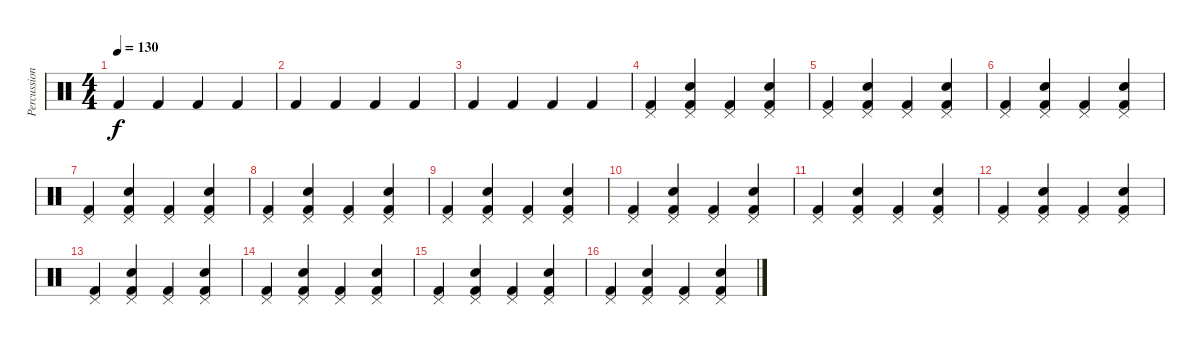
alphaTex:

\track ("Percussions" "Percussion") {instrument percussion}
\staff {score}
\articulation defaults
\ts (4 4)
\tempo 130
\clef neutral
\ks c "Kick (hit) 2".4{dy f} "Kick (hit) 2".4 "Kick (hit) 2".4 "Kick (hit) 2".4
|
"Kick (hit) 2".4 "Kick (hit) 2".4 "Kick (hit) 2".4 "Kick (hit) 2".4 |
"Kick (hit) 2".4 "Kick (hit) 2".4 "Kick (hit) 2".4 "Kick (hit) 2".4 |
("Pedal Hi-Hat (hit)" "Kick (hit) 2").4 ("Pedal Hi-Hat (hit)" "Snare (hit) 2" "Kick (hit) 2").4 ("Pedal Hi-Hat (hit)" "Kick (hit) 2").4 ("Pedal Hi-Hat (hit)" "Snare (hit) 2" "Kick (hit) 2").4 |
("Pedal Hi-Hat (hit)" "Kick (hit) 2").4 ("Pedal Hi-Hat (hit)" "Snare (hit) 2" "Kick (hit) 2").4 ("Pedal Hi-Hat (hit)" "Kick (hit) 2").4 ("Pedal Hi-Hat (hit)" "Snare (hit) 2" "Kick (hit) 2").4 |
("Pedal Hi-Hat (hit)" "Kick (hit) 2").4 ("Pedal Hi-Hat (hit)" "Snare (hit) 2" "Kick (hit) 2").4 ("Pedal Hi-Hat (hit)" "Kick (hit) 2").4 ("Pedal Hi-Hat (hit)" "Snare (hit) 2" "Kick (hit) 2").4 |
("Pedal Hi-Hat (hit)" "Kick (hit) 2").4 ("Pedal Hi-Hat (hit)" "Snare (hit) 2" "Kick (hit) 2").4 ("Pedal Hi-Hat (hit)" "Kick (hit) 2").4 ("Pedal Hi-Hat (hit)" "Snare (hit) 2" "Kick (hit) 2").4 |
("Pedal Hi-Hat (hit)" "Kick (hit) 2").4 ("Pedal Hi-Hat (hit)" "Snare (hit) 2" "Kick (hit) 2").4 ("Pedal Hi-Hat (hit)" "Kick (hit) 2").4 ("Pedal Hi-Hat (hit)" "Snare (hit) 2" "Kick (hit) 2").4 |
("Pedal Hi-Hat (hit)" "Kick (hit) 2").4 ("Pedal Hi-Hat (hit)" "Snare (hit) 2" "Kick (hit) 2").4 ("Pedal Hi-Hat (hit)" "Kick (hit) 2").4 ("Pedal Hi-Hat (hit)" "Snare (hit) 2" "Kick (hit) 2").4 |
("Pedal Hi-Hat (hit)" "Kick (hit) 2").4 ("Pedal Hi-Hat (hit)" "Snare (hit) 2" "Kick (hit) 2").4 ("Pedal Hi-Hat (hit)" "Kick (hit) 2").4 ("Pedal Hi-Hat (hit)" "Snare (hit) 2" "Kick (hit) 2").4 |
("Pedal Hi-Hat (hit)" "Kick (hit) 2").4 ("Pedal Hi-Hat (hit)" "Snare (hit) 2" "Kick (hit) 2").4 ("Pedal Hi-Hat (hit)" "Kick (hit) 2").4 ("Pedal Hi-Hat (hit)" "Snare (hit) 2" "Kick (hit) 2").4 |
("Pedal Hi-Hat (hit)" "Kick (hit) 2").4 ("Pedal Hi-Hat (hit)" "Snare (hit) 2" "Kick (hit) 2").4 ("Pedal Hi-Hat (hit)" "Kick (hit) 2").4 ("Pedal Hi-Hat (hit)" "Snare (hit) 2" "Kick (hit) 2").4 |
("Pedal Hi-Hat (hit)" "Kick (hit) 2").4 ("Pedal Hi-Hat (hit)" "Snare (hit) 2" "Kick (hit) 2").4 ("Pedal Hi-Hat (hit)" "Kick (hit) 2").4 ("Pedal Hi-Hat (hit)" "Snare (hit) 2" "Kick (hit) 2").4 |
("Pedal Hi-Hat (hit)" "Kick (hit) 2").4 ("Pedal Hi-Hat (hit)" "Snare (hit) 2" "Kick (hit) 2").4 ("Pedal Hi-Hat (hit)" "Kick (hit) 2").4 ("Pedal Hi-Hat (hit)" "Snare (hit) 2" "Kick (hit) 2").4 |
("Pedal Hi-Hat (hit)" "Kick (hit) 2").4 ("Pedal Hi-Hat (hit)" "Snare (hit) 2" "Kick (hit) 2").4 ("Pedal Hi-Hat (hit)" "Kick (hit) 2").4 ("Pedal Hi-Hat (hit)" "Snare (hit) 2" "Kick (hit) 2").4 |
("Pedal Hi-Hat (hit)" "Kick (hit) 2").4 ("Pedal Hi-Hat (hit)" "Snare (hit) 2" "Kick (hit) 2").4 ("Pedal Hi-Hat (hit)" "Kick (hit) 2").4 ("Pedal Hi-Hat (hit)" "Snare (hit) 2" "Kick (hit) 2").4
